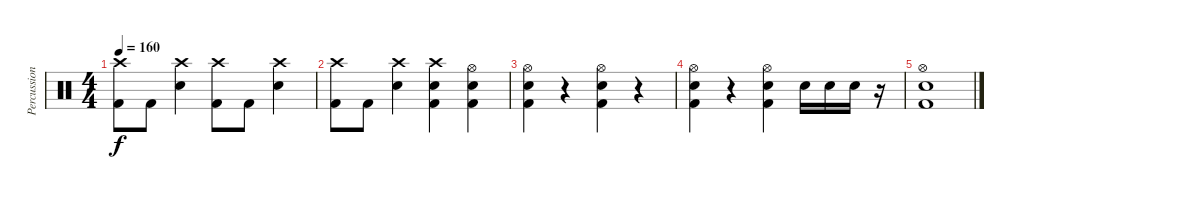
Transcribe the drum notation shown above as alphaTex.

\track ("Percussion" "Percussion") {instrument percussion}
\staff {score}
\articulation defaults
\ts (4 4)
\tempo 160
\clef neutral
\ks c
("Crash high (hit)" "Kick (hit) 2").8{dy f} "Kick (hit) 2".8 ("Crash high (hit)" "Snare (hit) 2").4 ("Crash high (hit)" "Kick (hit) 2").8 "Kick (hit) 2".8 ("Crash high (hit)" "Snare (hit) 2").4 |
("Crash high (hit)" "Kick (hit) 2").8 "Kick (hit) 2".8 ("Crash high (hit)" "Snare (hit) 2").4 ("Crash high (hit)" "Snare (hit) 2" "Kick (hit) 2").4 ("Hi-Hat (open)" "Snare (hit) 2" "Kick (hit) 2").4 |
("Hi-Hat (open)" "Snare (hit) 2" "Kick (hit) 2").4 r.4 ("Hi-Hat (open)" "Snare (hit) 2" "Kick (hit) 2").4 r.4 |
("Hi-Hat (open)" "Snare (hit) 2" "Kick (hit) 2").4 r.4 ("Hi-Hat (open)" "Snare (hit) 2" "Kick (hit) 2").4 "Snare (hit) 2".16 "Snare (hit) 2".16 "Snare (hit) 2".16 r.16 |
("Hi-Hat (open)" "Snare (hit) 2" "Kick (hit) 2").1
